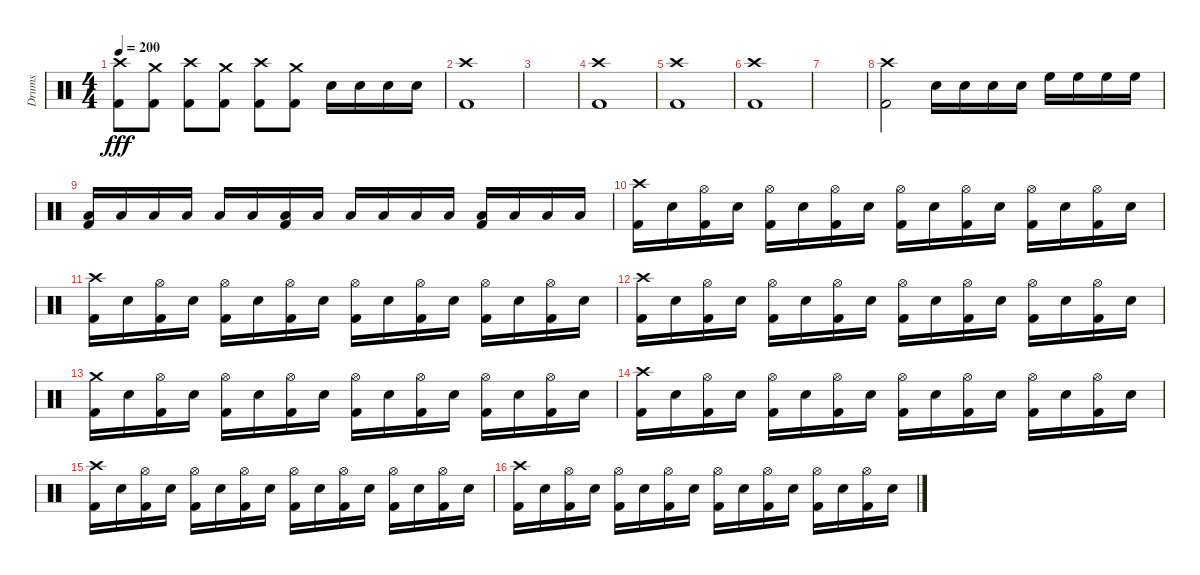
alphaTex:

\track ("Drums" "Drums") {instrument percussion}
\staff {score}
\articulation defaults
\ts (4 4)
\tempo 200
\clef neutral
\ks c
("Crash high (hit)" "Kick (hit) 2").8{dy fff} ("Crash medium (hit)" "Kick (hit) 2").8 ("Crash high (hit)" "Kick (hit) 2").8 ("Crash medium (hit)" "Kick (hit) 2").8 ("Crash high (hit)" "Kick (hit) 2").8 ("Crash medium (hit)" "Kick (hit) 2").8 "Electric Snare (hit)".16 "Electric Snare (hit)".16 "Electric Snare (hit)".16 "Electric Snare (hit)".16 |
("Crash high (hit)" "Kick (hit) 2").1 |
|
("Crash high (hit)" "Kick (hit) 2").1 |
("Crash high (hit)" "Kick (hit) 2").1 |
("Crash high (hit)" "Kick (hit) 2").1 |
|
("Crash high (hit)" "Kick (hit) 2").2 "Electric Snare (hit)".16 "Electric Snare (hit)".16 "Electric Snare (hit)".16 "Electric Snare (hit)".16 "High Floor Tom (hit)".16 "High Floor Tom (hit)".16 "High Floor Tom (hit)".16 "High Floor Tom (hit)".16 |
("Low Floor Tom (hit)" "Kick (hit) 2").16 "Low Floor Tom (hit)".16 "Low Floor Tom (hit)".16 "Low Floor Tom (hit)".16 "Low Floor Tom (hit)".16 "Low Floor Tom (hit)".16 ("Low Floor Tom (hit)" "Kick (hit) 2").16 "Low Floor Tom (hit)".16 "Low Floor Tom (hit)".16 "Low Floor Tom (hit)".16 "Low Floor Tom (hit)".16 "Low Floor Tom (hit)".16 ("Low Floor Tom (hit)" "Kick (hit) 2").16 "Low Floor Tom (hit)".16 "Low Floor Tom (hit)".16 "Low Floor Tom (hit)".16 |
("Crash high (hit)" "Kick (hit) 2").16 "Electric Snare (hit)".16 ("Hi-Hat (open)" "Kick (hit) 2").16 "Electric Snare (hit)".16 ("Hi-Hat (open)" "Kick (hit) 2").16 "Electric Snare (hit)".16 ("Hi-Hat (open)" "Kick (hit) 2").16 "Electric Snare (hit)".16 ("Hi-Hat (open)" "Kick (hit) 2").16 "Electric Snare (hit)".16 ("Hi-Hat (open)" "Kick (hit) 2").16 "Electric Snare (hit)".16 ("Hi-Hat (open)" "Kick (hit) 2").16 "Electric Snare (hit)".16 ("Hi-Hat (open)" "Kick (hit) 2").16 "Electric Snare (hit)".16 |
("Crash high (hit)" "Kick (hit) 2").16 "Electric Snare (hit)".16 ("Hi-Hat (open)" "Kick (hit) 2").16 "Electric Snare (hit)".16 ("Hi-Hat (open)" "Kick (hit) 2").16 "Electric Snare (hit)".16 ("Hi-Hat (open)" "Kick (hit) 2").16 "Electric Snare (hit)".16 ("Hi-Hat (open)" "Kick (hit) 2").16 "Electric Snare (hit)".16 ("Hi-Hat (open)" "Kick (hit) 2").16 "Electric Snare (hit)".16 ("Hi-Hat (open)" "Kick (hit) 2").16 "Electric Snare (hit)".16 ("Hi-Hat (open)" "Kick (hit) 2").16 "Electric Snare (hit)".16 |
("Crash high (hit)" "Kick (hit) 2").16 "Electric Snare (hit)".16 ("Hi-Hat (open)" "Kick (hit) 2").16 "Electric Snare (hit)".16 ("Hi-Hat (open)" "Kick (hit) 2").16 "Electric Snare (hit)".16 ("Hi-Hat (open)" "Kick (hit) 2").16 "Electric Snare (hit)".16 ("Hi-Hat (open)" "Kick (hit) 2").16 "Electric Snare (hit)".16 ("Hi-Hat (open)" "Kick (hit) 2").16 "Electric Snare (hit)".16 ("Hi-Hat (open)" "Kick (hit) 2").16 "Electric Snare (hit)".16 ("Hi-Hat (open)" "Kick (hit) 2").16 "Electric Snare (hit)".16 |
("Crash medium (hit)" "Kick (hit) 2").16 "Electric Snare (hit)".16 ("Hi-Hat (open)" "Kick (hit) 2").16 "Electric Snare (hit)".16 ("Hi-Hat (open)" "Kick (hit) 2").16 "Electric Snare (hit)".16 ("Hi-Hat (open)" "Kick (hit) 2").16 "Electric Snare (hit)".16 ("Hi-Hat (open)" "Kick (hit) 2").16 "Electric Snare (hit)".16 ("Hi-Hat (open)" "Kick (hit) 2").16 "Electric Snare (hit)".16 ("Hi-Hat (open)" "Kick (hit) 2").16 "Electric Snare (hit)".16 ("Hi-Hat (open)" "Kick (hit) 2").16 "Electric Snare (hit)".16 |
("Crash high (hit)" "Kick (hit) 2").16 "Electric Snare (hit)".16 ("Hi-Hat (open)" "Kick (hit) 2").16 "Electric Snare (hit)".16 ("Hi-Hat (open)" "Kick (hit) 2").16 "Electric Snare (hit)".16 ("Hi-Hat (open)" "Kick (hit) 2").16 "Electric Snare (hit)".16 ("Hi-Hat (open)" "Kick (hit) 2").16 "Electric Snare (hit)".16 ("Hi-Hat (open)" "Kick (hit) 2").16 "Electric Snare (hit)".16 ("Hi-Hat (open)" "Kick (hit) 2").16 "Electric Snare (hit)".16 ("Hi-Hat (open)" "Kick (hit) 2").16 "Electric Snare (hit)".16 |
("Crash high (hit)" "Kick (hit) 2").16 "Electric Snare (hit)".16 ("Hi-Hat (open)" "Kick (hit) 2").16 "Electric Snare (hit)".16 ("Hi-Hat (open)" "Kick (hit) 2").16 "Electric Snare (hit)".16 ("Hi-Hat (open)" "Kick (hit) 2").16 "Electric Snare (hit)".16 ("Hi-Hat (open)" "Kick (hit) 2").16 "Electric Snare (hit)".16 ("Hi-Hat (open)" "Kick (hit) 2").16 "Electric Snare (hit)".16 ("Hi-Hat (open)" "Kick (hit) 2").16 "Electric Snare (hit)".16 ("Hi-Hat (open)" "Kick (hit) 2").16 "Electric Snare (hit)".16 |
("Crash high (hit)" "Kick (hit) 2").16 "Electric Snare (hit)".16 ("Hi-Hat (open)" "Kick (hit) 2").16 "Electric Snare (hit)".16 ("Hi-Hat (open)" "Kick (hit) 2").16 "Electric Snare (hit)".16 ("Hi-Hat (open)" "Kick (hit) 2").16 "Electric Snare (hit)".16 ("Hi-Hat (open)" "Kick (hit) 2").16 "Electric Snare (hit)".16 ("Hi-Hat (open)" "Kick (hit) 2").16 "Electric Snare (hit)".16 ("Hi-Hat (open)" "Kick (hit) 2").16 "Electric Snare (hit)".16 ("Hi-Hat (open)" "Kick (hit) 2").16 "Electric Snare (hit)".16
